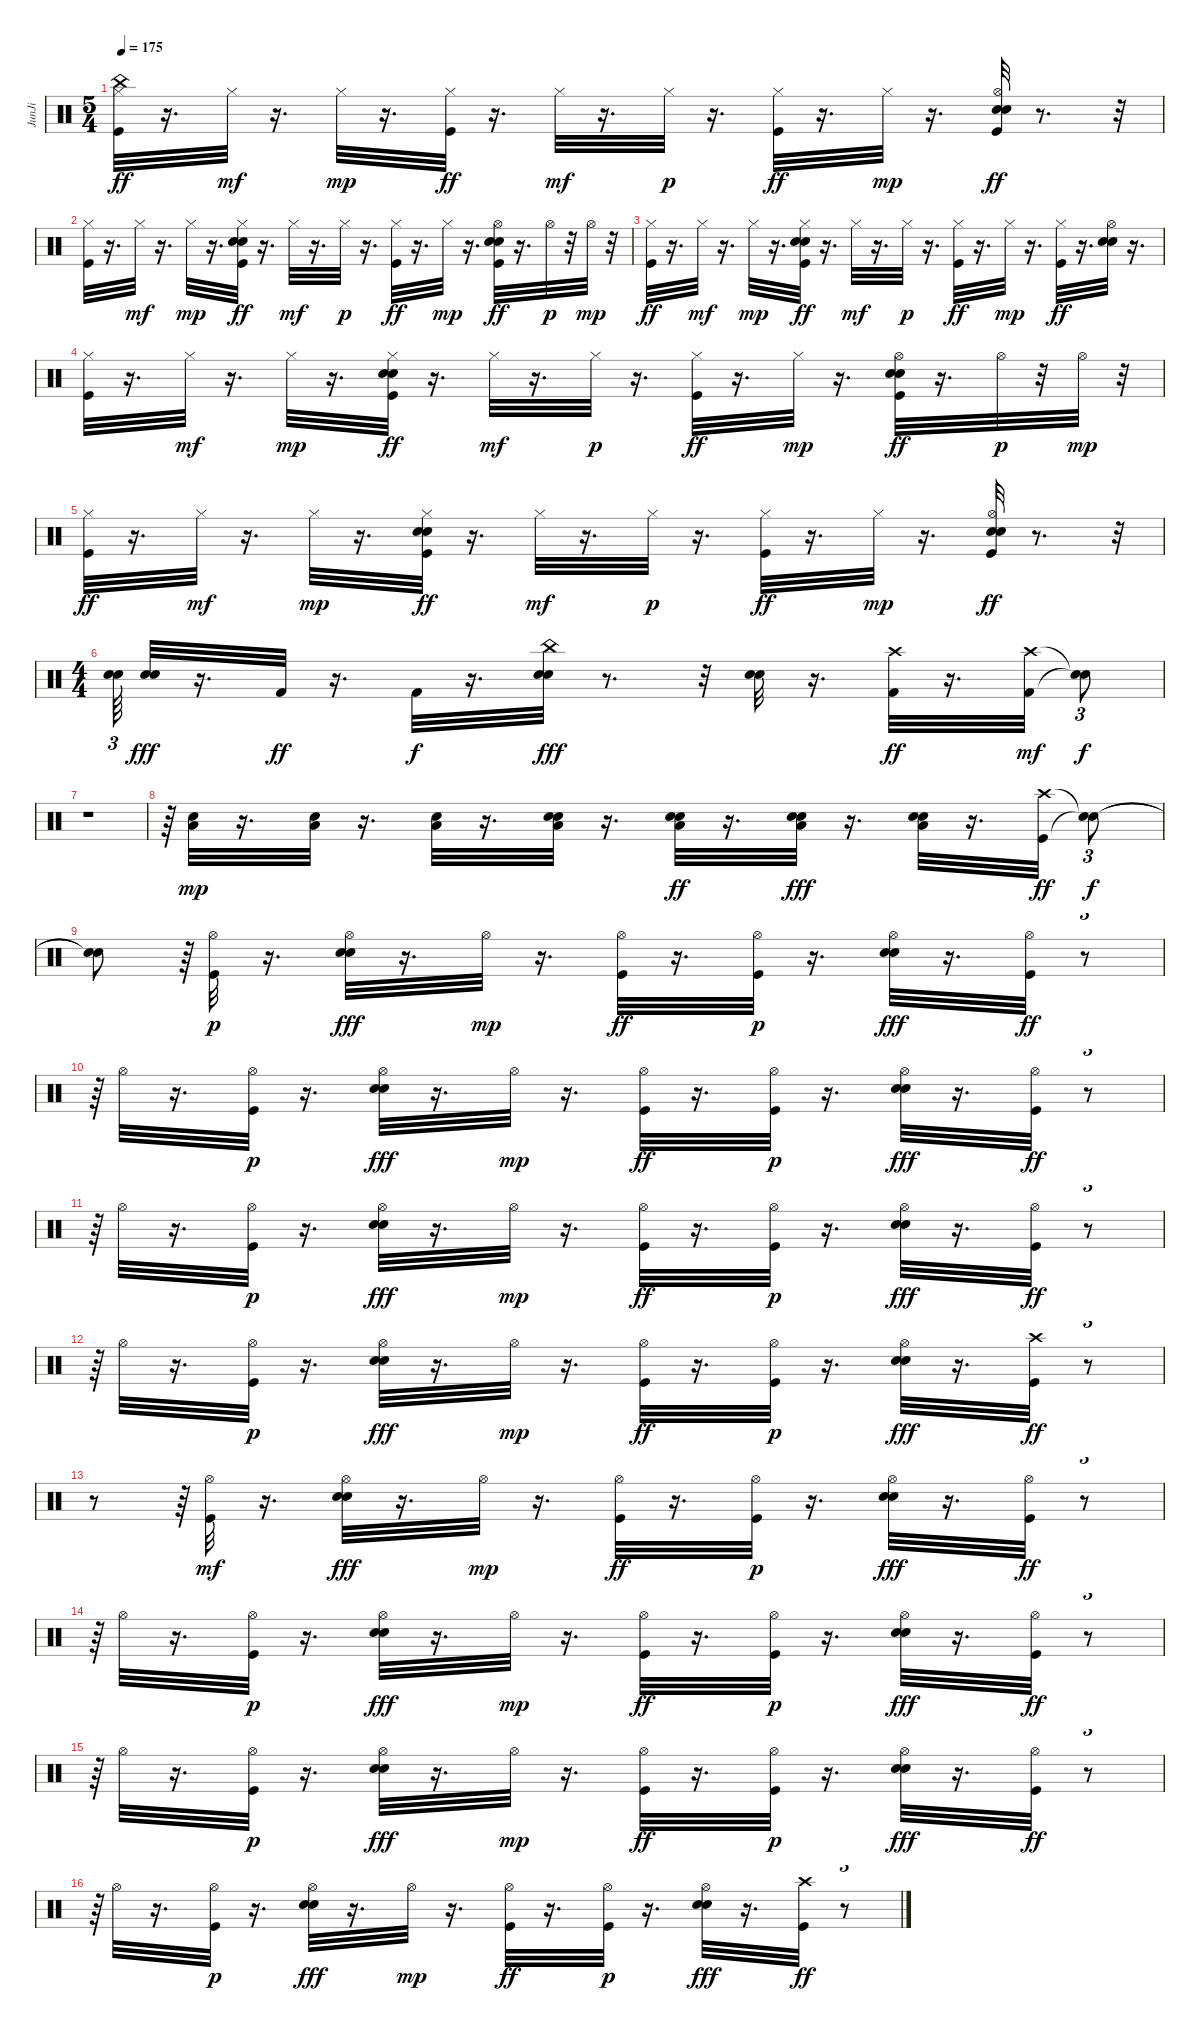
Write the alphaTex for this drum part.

\track ("JunJi" "JunJi") {instrument percussion}
\staff {score}
\articulation defaults
\ts (5 4)
\tempo 175
\clef neutral
\ks c
("Hi-Hat (closed)" "China (hit)" "Kick (hit)").32{dy ff} r.16{d} "Hi-Hat (closed)".32{dy mf} r.16{d} "Hi-Hat (closed)".32{dy mp} r.16{d} ("Hi-Hat (closed)" "Kick (hit)").32{dy ff} r.16{d} "Hi-Hat (closed)".32{dy mf} r.16{d} "Hi-Hat (closed)".32{dy p} r.16{d} ("Hi-Hat (closed)" "Kick (hit)").32{dy ff} r.16{d} "Hi-Hat (closed)".32{dy mp} r.16{d} ("Hi-Hat (open)" "Electric Snare (hit)" "Kick (hit)" "Snare (hit) 2").32{dy ff} r.8{d} r.32 |
("Hi-Hat (closed)" "Kick (hit)").32 r.16{d} "Hi-Hat (closed)".32{dy mf} r.16{d} "Hi-Hat (closed)".32{dy mp} r.16{d} ("Hi-Hat (closed)" "Electric Snare (hit)" "Kick (hit)" "Snare (hit) 2").32{dy ff} r.16{d} "Hi-Hat (closed)".32{dy mf} r.16{d} "Hi-Hat (closed)".32{dy p} r.16{d} ("Hi-Hat (closed)" "Kick (hit)").32{dy ff} r.16{d} "Hi-Hat (closed)".32{dy mp} r.16{d} ("Hi-Hat (open)" "Electric Snare (hit)" "Kick (hit)" "Snare (hit) 2").32{dy ff} r.16{d} "Hi-Hat (open)".32{dy p} r.32 "Hi-Hat (open)".32{dy mp} r.32 |
("Hi-Hat (closed)" "Kick (hit)").32{dy ff} r.16{d} "Hi-Hat (closed)".32{dy mf} r.16{d} "Hi-Hat (closed)".32{dy mp} r.16{d} ("Hi-Hat (closed)" "Electric Snare (hit)" "Kick (hit)" "Snare (hit) 2").32{dy ff} r.16{d} "Hi-Hat (closed)".32{dy mf} r.16{d} "Hi-Hat (closed)".32{dy p} r.16{d} ("Hi-Hat (closed)" "Kick (hit)").32{dy ff} r.16{d} "Hi-Hat (closed)".32{dy mp} r.16{d} ("Hi-Hat (closed)" "Kick (hit)").32{dy ff} r.16{d} ("Hi-Hat (open)" "Electric Snare (hit)" "Snare (hit) 2").32 r.16{d} |
("Hi-Hat (closed)" "Kick (hit)").32 r.16{d} "Hi-Hat (closed)".32{dy mf} r.16{d} "Hi-Hat (closed)".32{dy mp} r.16{d} ("Hi-Hat (closed)" "Electric Snare (hit)" "Kick (hit)" "Snare (hit) 2").32{dy ff} r.16{d} "Hi-Hat (closed)".32{dy mf} r.16{d} "Hi-Hat (closed)".32{dy p} r.16{d} ("Hi-Hat (closed)" "Kick (hit)").32{dy ff} r.16{d} "Hi-Hat (closed)".32{dy mp} r.16{d} ("Hi-Hat (open)" "Electric Snare (hit)" "Kick (hit)" "Snare (hit) 2").32{dy ff} r.16{d} "Hi-Hat (open)".32{dy p} r.32 "Hi-Hat (open)".32{dy mp} r.32 |
("Hi-Hat (closed)" "Kick (hit)").32{dy ff} r.16{d} "Hi-Hat (closed)".32{dy mf} r.16{d} "Hi-Hat (closed)".32{dy mp} r.16{d} ("Hi-Hat (closed)" "Electric Snare (hit)" "Kick (hit)" "Snare (hit) 2").32{dy ff} r.16{d} "Hi-Hat (closed)".32{dy mf} r.16{d} "Hi-Hat (closed)".32{dy p} r.16{d} ("Hi-Hat (closed)" "Kick (hit)").32{dy ff} r.16{d} "Hi-Hat (closed)".32{dy mp} r.16{d} ("Hi-Hat (open)" "Electric Snare (hit)" "Kick (hit)" "Snare (hit) 2").32{dy ff} r.8{d} r.32 |
\ts (4 4)
("Electric Snare (hit)" "Snare (hit) 2").64{tu (3 2)} ("Electric Snare (hit)" "Snare (hit) 2").32{dy fff} r.16{d} "Kick (hit) 2".32{dy ff} r.16{d} "Kick (hit) 2".32{dy f} r.16{d} ("China (hit)" "Electric Snare (hit)" "Snare (hit) 2").32{dy fff} r.8{d} r.32 ("Electric Snare (hit)" "Snare (hit) 2").32 r.16{d} ("Crash high (hit)" "Kick (hit) 2").32{dy ff} r.16{d} ("Crash high (hit)" "Kick (hit) 2").32{dy mf} ("Snare (hit)"{t} "Snare (hit)"{t}).8{tu (3 2) dy f} |
r.1 |
r.64{tu (3 2)} ("Low Floor Tom (hit)" "Snare (hit) 2").32{dy mp} r.16{d} ("Low Floor Tom (hit)" "Snare (hit) 2").32 r.16{d} ("Low Floor Tom (hit)" "Snare (hit) 2").32 r.16{d} ("Electric Snare (hit)" "Low Floor Tom (hit)" "Snare (hit) 2").32 r.16{d} ("Electric Snare (hit)" "Low Floor Tom (hit)" "Snare (hit) 2").32{dy ff} r.16{d} ("Electric Snare (hit)" "Low Floor Tom (hit)" "Snare (hit) 2").32{dy fff} r.16{d} ("Electric Snare (hit)" "Low Floor Tom (hit)" "Snare (hit) 2").32 r.16{d} ("Crash high (hit)" "Kick (hit)").32{dy ff} ("Snare (hit)"{t} "Snare (hit)"{t}).8{tu (3 2) dy f} |
("Snare (hit)"{t} "Snare (hit)"{t}).8 r.64{tu (3 2)} ("Hi-Hat (open)" "Kick (hit)").32{dy p} r.16{d} ("Hi-Hat (open)" "Electric Snare (hit)" "Snare (hit) 2").32{dy fff} r.16{d} "Hi-Hat (open)".32{dy mp} r.16{d} ("Hi-Hat (open)" "Kick (hit)").32{dy ff} r.16{d} ("Hi-Hat (open)" "Kick (hit)").32{dy p} r.16{d} ("Hi-Hat (open)" "Electric Snare (hit)" "Snare (hit) 2").32{dy fff} r.16{d} ("Hi-Hat (open)" "Kick (hit)").32{dy ff} r.8{tu (3 2)} |
r.64{tu (3 2)} "Hi-Hat (open)".32 r.16{d} ("Hi-Hat (open)" "Kick (hit)").32{dy p} r.16{d} ("Hi-Hat (open)" "Electric Snare (hit)" "Snare (hit) 2").32{dy fff} r.16{d} "Hi-Hat (open)".32{dy mp} r.16{d} ("Hi-Hat (open)" "Kick (hit)").32{dy ff} r.16{d} ("Hi-Hat (open)" "Kick (hit)").32{dy p} r.16{d} ("Hi-Hat (open)" "Electric Snare (hit)" "Snare (hit) 2").32{dy fff} r.16{d} ("Hi-Hat (open)" "Kick (hit)").32{dy ff} r.8{tu (3 2)} |
r.64{tu (3 2)} "Hi-Hat (open)".32 r.16{d} ("Hi-Hat (open)" "Kick (hit)").32{dy p} r.16{d} ("Hi-Hat (open)" "Electric Snare (hit)" "Snare (hit) 2").32{dy fff} r.16{d} "Hi-Hat (open)".32{dy mp} r.16{d} ("Hi-Hat (open)" "Kick (hit)").32{dy ff} r.16{d} ("Hi-Hat (open)" "Kick (hit)").32{dy p} r.16{d} ("Hi-Hat (open)" "Electric Snare (hit)" "Snare (hit) 2").32{dy fff} r.16{d} ("Hi-Hat (open)" "Kick (hit)").32{dy ff} r.8{tu (3 2)} |
r.64{tu (3 2)} "Hi-Hat (open)".32 r.16{d} ("Hi-Hat (open)" "Kick (hit)").32{dy p} r.16{d} ("Hi-Hat (open)" "Electric Snare (hit)" "Snare (hit) 2").32{dy fff} r.16{d} "Hi-Hat (open)".32{dy mp} r.16{d} ("Hi-Hat (open)" "Kick (hit)").32{dy ff} r.16{d} ("Hi-Hat (open)" "Kick (hit)").32{dy p} r.16{d} ("Hi-Hat (open)" "Electric Snare (hit)" "Snare (hit) 2").32{dy fff} r.16{d} ("Crash high (hit)" "Kick (hit)").32{dy ff} r.8{tu (3 2)} |
r.8 r.64{tu (3 2)} ("Hi-Hat (open)" "Kick (hit)").32{dy mf} r.16{d} ("Hi-Hat (open)" "Electric Snare (hit)" "Snare (hit) 2").32{dy fff} r.16{d} "Hi-Hat (open)".32{dy mp} r.16{d} ("Hi-Hat (open)" "Kick (hit)").32{dy ff} r.16{d} ("Hi-Hat (open)" "Kick (hit)").32{dy p} r.16{d} ("Hi-Hat (open)" "Electric Snare (hit)" "Snare (hit) 2").32{dy fff} r.16{d} ("Hi-Hat (open)" "Kick (hit)").32{dy ff} r.8{tu (3 2)} |
r.64{tu (3 2)} "Hi-Hat (open)".32 r.16{d} ("Hi-Hat (open)" "Kick (hit)").32{dy p} r.16{d} ("Hi-Hat (open)" "Electric Snare (hit)" "Snare (hit) 2").32{dy fff} r.16{d} "Hi-Hat (open)".32{dy mp} r.16{d} ("Hi-Hat (open)" "Kick (hit)").32{dy ff} r.16{d} ("Hi-Hat (open)" "Kick (hit)").32{dy p} r.16{d} ("Hi-Hat (open)" "Electric Snare (hit)" "Snare (hit) 2").32{dy fff} r.16{d} ("Hi-Hat (open)" "Kick (hit)").32{dy ff} r.8{tu (3 2)} |
r.64{tu (3 2)} "Hi-Hat (open)".32 r.16{d} ("Hi-Hat (open)" "Kick (hit)").32{dy p} r.16{d} ("Hi-Hat (open)" "Electric Snare (hit)" "Snare (hit) 2").32{dy fff} r.16{d} "Hi-Hat (open)".32{dy mp} r.16{d} ("Hi-Hat (open)" "Kick (hit)").32{dy ff} r.16{d} ("Hi-Hat (open)" "Kick (hit)").32{dy p} r.16{d} ("Hi-Hat (open)" "Electric Snare (hit)" "Snare (hit) 2").32{dy fff} r.16{d} ("Hi-Hat (open)" "Kick (hit)").32{dy ff} r.8{tu (3 2)} |
r.64{tu (3 2)} "Hi-Hat (open)".32 r.16{d} ("Hi-Hat (open)" "Kick (hit)").32{dy p} r.16{d} ("Hi-Hat (open)" "Electric Snare (hit)" "Snare (hit) 2").32{dy fff} r.16{d} "Hi-Hat (open)".32{dy mp} r.16{d} ("Hi-Hat (open)" "Kick (hit)").32{dy ff} r.16{d} ("Hi-Hat (open)" "Kick (hit)").32{dy p} r.16{d} ("Hi-Hat (open)" "Electric Snare (hit)" "Snare (hit) 2").32{dy fff} r.16{d} ("Crash high (hit)" "Kick (hit)").32{dy ff} r.8{tu (3 2)}
